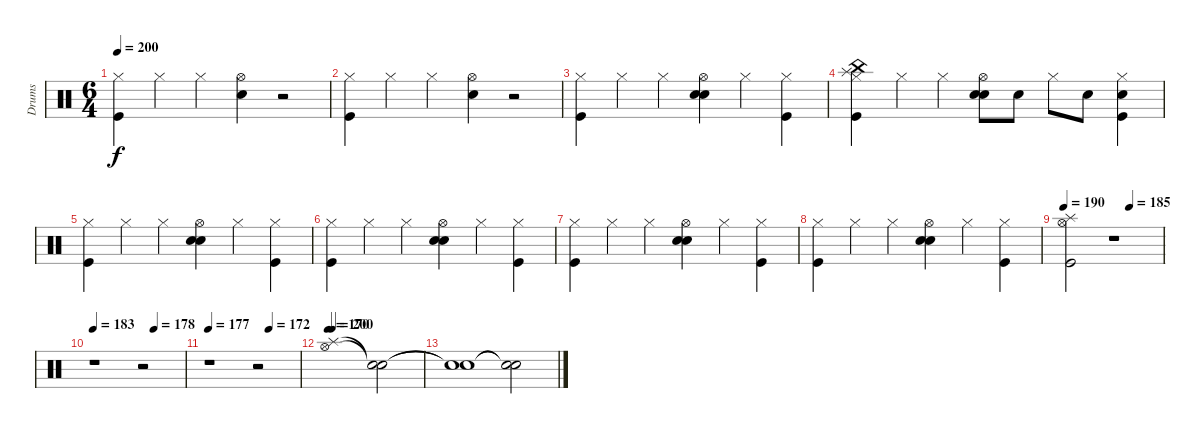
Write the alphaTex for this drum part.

\track ("Drums" "Drums") {instrument percussion}
\staff {score}
\articulation defaults
\ts (6 4)
\tempo 200
\clef neutral
\ks c
("Hi-Hat (closed)" "Kick (hit)").4{dy f} "Hi-Hat (closed)".4 "Hi-Hat (closed)".4 ("Snare (hit) 2" "Hi-Hat (open)").4 r.2 |
("Hi-Hat (closed)" "Kick (hit)").4 "Hi-Hat (closed)".4 "Hi-Hat (closed)".4 ("Snare (hit) 2" "Hi-Hat (open)").4 r.2 |
("Hi-Hat (closed)" "Kick (hit)").4 "Hi-Hat (closed)".4 "Hi-Hat (closed)".4 ("Electric Snare (hit)" "Hand Clap (hit)" "Hi-Hat (open)").4 "Hi-Hat (closed)".4 ("Kick (hit)" "Hi-Hat (closed)").4 |
("China (hit)" "Splash (hit)" "Hi-Hat (closed)" "Kick (hit)").4 "Hi-Hat (closed)".4 "Hi-Hat (closed)".4 ("Electric Snare (hit)" "Hand Clap (hit)" "Hi-Hat (open)").8 "Snare (hit) 2".8 "Hi-Hat (closed)".8 "Snare (hit) 2".8 ("Electric Snare (hit)" "Kick (hit)" "Hi-Hat (closed)").4 |
("Hi-Hat (closed)" "Kick (hit)").4 "Hi-Hat (closed)".4 "Hi-Hat (closed)".4 ("Electric Snare (hit)" "Hand Clap (hit)" "Hi-Hat (open)").4 "Hi-Hat (closed)".4 ("Kick (hit)" "Hi-Hat (closed)").4 |
("Hi-Hat (closed)" "Kick (hit)").4 "Hi-Hat (closed)".4 "Hi-Hat (closed)".4 ("Electric Snare (hit)" "Hand Clap (hit)" "Hi-Hat (open)").4 "Hi-Hat (closed)".4 ("Kick (hit)" "Hi-Hat (closed)").4 |
("Hi-Hat (closed)" "Kick (hit)").4 "Hi-Hat (closed)".4 "Hi-Hat (closed)".4 ("Electric Snare (hit)" "Hand Clap (hit)" "Hi-Hat (open)").4 "Hi-Hat (closed)".4 ("Kick (hit)" "Hi-Hat (closed)").4 |
("Hi-Hat (closed)" "Kick (hit)").4 "Hi-Hat (closed)".4 "Hi-Hat (closed)".4 ("Electric Snare (hit)" "Hand Clap (hit)" "Hi-Hat (open)").4 "Hi-Hat (closed)".4 ("Kick (hit)" "Hi-Hat (closed)").4 |
\tempo 190
\tempo (185 0.6666666666666666)
("Splash (hit)" "Hi-Hat (open)" "Kick (hit)").2 r.1 |
\tempo 183
\tempo (178 0.6666666666666666)
r.1 r.2 |
\tempo 177
\tempo (172 0.6666666666666666)
r.1 r.2 |
\tempo 170
\tempo (200 0.041666666666666664)
("Hi-Hat (open)" "Splash (hit)").1 ("Snare (hit)"{t} "Snare (hit)"{t}).2 |
("Snare (hit)"{t} "Snare (hit)"{t}).1 ("Snare (hit)"{t} "Snare (hit)"{t}).2
